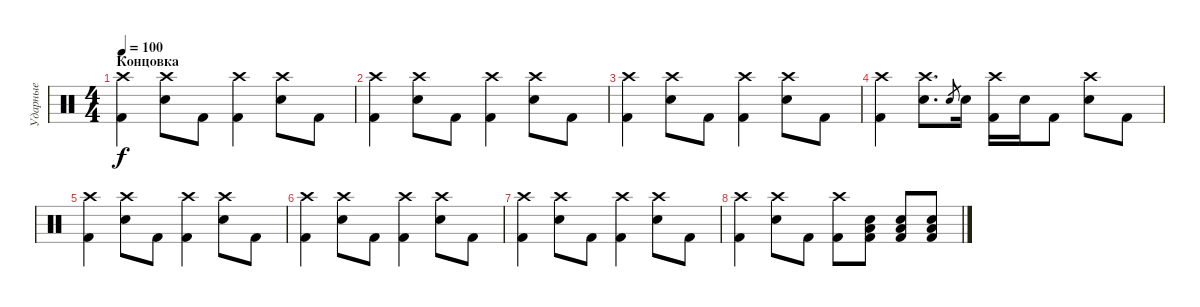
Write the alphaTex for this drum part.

\track ("Ударные" "Ударные") {instrument percussion}
\staff {score}
\articulation defaults
\ts (4 4)
\section ("" "Концовка")
\tempo 100
\clef neutral
\ks c
("Crash high (hit)" "Kick (hit) 2").4{dy f} ("Crash high (hit)" "Electric Snare (hit)").8 "Kick (hit) 2".8 ("Crash high (hit)" "Kick (hit) 2").4 ("Crash high (hit)" "Electric Snare (hit)").8 "Kick (hit) 2".8 |
("Crash high (hit)" "Kick (hit) 2").4 ("Crash high (hit)" "Electric Snare (hit)").8 "Kick (hit) 2".8 ("Crash high (hit)" "Kick (hit) 2").4 ("Crash high (hit)" "Electric Snare (hit)").8 "Kick (hit) 2".8 |
("Crash high (hit)" "Kick (hit) 2").4 ("Crash high (hit)" "Electric Snare (hit)").8 "Kick (hit) 2".8 ("Crash high (hit)" "Kick (hit) 2").4 ("Crash high (hit)" "Electric Snare (hit)").8 "Kick (hit) 2".8 |
("Crash high (hit)" "Kick (hit) 2").4 ("Crash high (hit)" "Electric Snare (hit)").8{d} "Electric Snare (hit)".8{gr} "Electric Snare (hit)".16 ("Crash high (hit)" "Kick (hit) 2").16 "Electric Snare (hit)".16 "Kick (hit) 2".8 ("Crash high (hit)" "Electric Snare (hit)").8 "Kick (hit) 2".8 |
("Crash high (hit)" "Kick (hit) 2").4 ("Crash high (hit)" "Electric Snare (hit)").8 "Kick (hit) 2".8 ("Crash high (hit)" "Kick (hit) 2").4 ("Crash high (hit)" "Electric Snare (hit)").8 "Kick (hit) 2".8 |
("Crash high (hit)" "Kick (hit) 2").4 ("Crash high (hit)" "Electric Snare (hit)").8 "Kick (hit) 2".8 ("Crash high (hit)" "Kick (hit) 2").4 ("Crash high (hit)" "Electric Snare (hit)").8 "Kick (hit) 2".8 |
("Crash high (hit)" "Kick (hit) 2").4 ("Crash high (hit)" "Electric Snare (hit)").8 "Kick (hit) 2".8 ("Crash high (hit)" "Kick (hit) 2").4 ("Crash high (hit)" "Electric Snare (hit)").8 "Kick (hit) 2".8 |
("Crash high (hit)" "Kick (hit) 2").4 ("Crash high (hit)" "Electric Snare (hit)").8 "Kick (hit) 2".8 ("Crash high (hit)" "Kick (hit) 2").8 ("Electric Snare (hit)" "Low Floor Tom (hit)" "Kick (hit) 2").8 ("Electric Snare (hit)" "Low Floor Tom (hit)" "Kick (hit) 2").8 ("Electric Snare (hit)" "Low Floor Tom (hit)" "Kick (hit) 2").8
